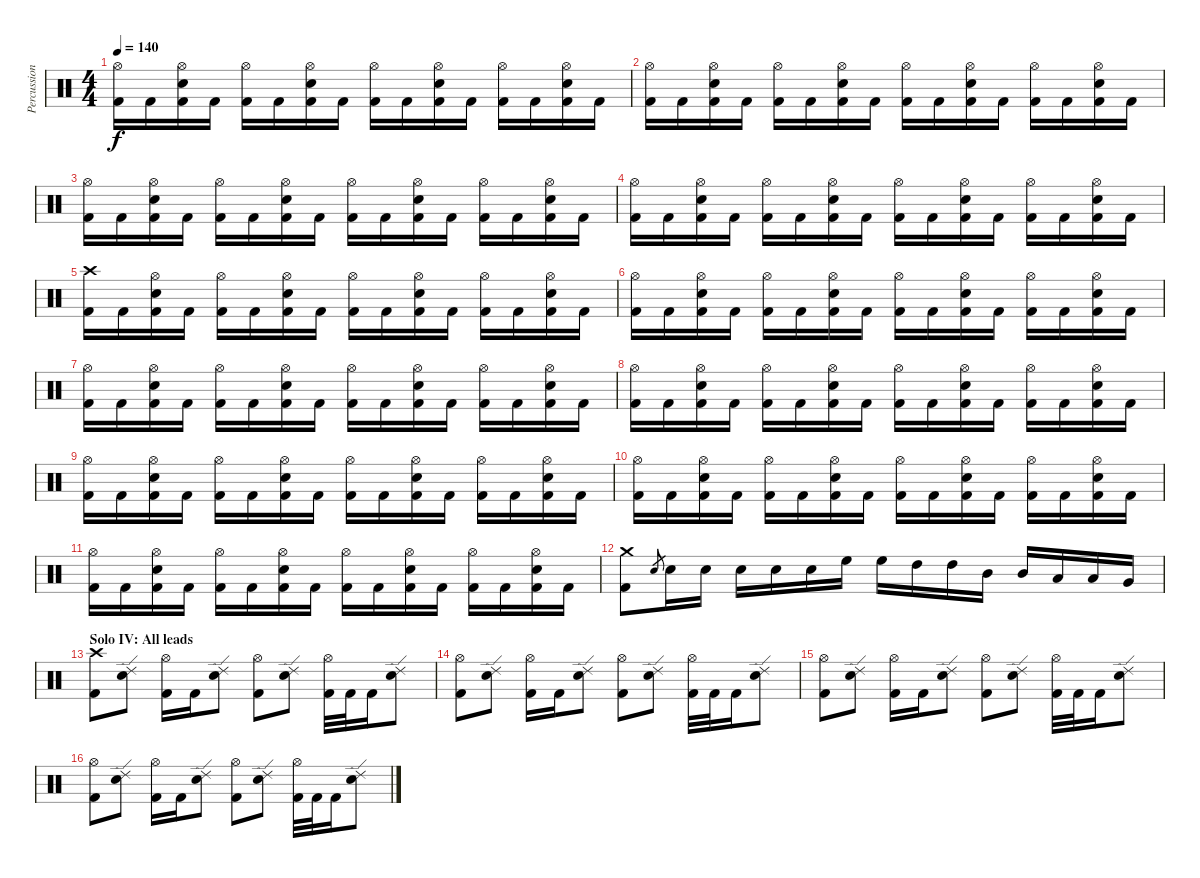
\track ("Percussion" "Percussion") {instrument percussion}
\staff {score}
\articulation defaults
\ts (4 4)
\tempo 140
\clef neutral
\ks c
("Hi-Hat (open)" "Kick (hit) 2").16{dy f} "Kick (hit) 2".16 ("Hi-Hat (open)" "Electric Snare (hit)" "Kick (hit) 2").16 "Kick (hit) 2".16 ("Hi-Hat (open)" "Kick (hit) 2").16 "Kick (hit) 2".16 ("Hi-Hat (open)" "Electric Snare (hit)" "Kick (hit) 2").16 "Kick (hit) 2".16 ("Hi-Hat (open)" "Kick (hit) 2").16 "Kick (hit) 2".16 ("Hi-Hat (open)" "Electric Snare (hit)" "Kick (hit) 2").16 "Kick (hit) 2".16 ("Hi-Hat (open)" "Kick (hit) 2").16 "Kick (hit) 2".16 ("Hi-Hat (open)" "Electric Snare (hit)" "Kick (hit) 2").16 "Kick (hit) 2".16 |
("Hi-Hat (open)" "Kick (hit) 2").16 "Kick (hit) 2".16 ("Hi-Hat (open)" "Electric Snare (hit)" "Kick (hit) 2").16 "Kick (hit) 2".16 ("Hi-Hat (open)" "Kick (hit) 2").16 "Kick (hit) 2".16 ("Hi-Hat (open)" "Electric Snare (hit)" "Kick (hit) 2").16 "Kick (hit) 2".16 ("Hi-Hat (open)" "Kick (hit) 2").16 "Kick (hit) 2".16 ("Hi-Hat (open)" "Electric Snare (hit)" "Kick (hit) 2").16 "Kick (hit) 2".16 ("Hi-Hat (open)" "Kick (hit) 2").16 "Kick (hit) 2".16 ("Hi-Hat (open)" "Electric Snare (hit)" "Kick (hit) 2").16 "Kick (hit) 2".16 |
("Hi-Hat (open)" "Kick (hit) 2").16 "Kick (hit) 2".16 ("Hi-Hat (open)" "Electric Snare (hit)" "Kick (hit) 2").16 "Kick (hit) 2".16 ("Hi-Hat (open)" "Kick (hit) 2").16 "Kick (hit) 2".16 ("Hi-Hat (open)" "Electric Snare (hit)" "Kick (hit) 2").16 "Kick (hit) 2".16 ("Hi-Hat (open)" "Kick (hit) 2").16 "Kick (hit) 2".16 ("Hi-Hat (open)" "Electric Snare (hit)" "Kick (hit) 2").16 "Kick (hit) 2".16 ("Hi-Hat (open)" "Kick (hit) 2").16 "Kick (hit) 2".16 ("Hi-Hat (open)" "Electric Snare (hit)" "Kick (hit) 2").16 "Kick (hit) 2".16 |
("Hi-Hat (open)" "Kick (hit) 2").16 "Kick (hit) 2".16 ("Hi-Hat (open)" "Electric Snare (hit)" "Kick (hit) 2").16 "Kick (hit) 2".16 ("Hi-Hat (open)" "Kick (hit) 2").16 "Kick (hit) 2".16 ("Hi-Hat (open)" "Electric Snare (hit)" "Kick (hit) 2").16 "Kick (hit) 2".16 ("Hi-Hat (open)" "Kick (hit) 2").16 "Kick (hit) 2".16 ("Hi-Hat (open)" "Electric Snare (hit)" "Kick (hit) 2").16 "Kick (hit) 2".16 ("Hi-Hat (open)" "Kick (hit) 2").16 "Kick (hit) 2".16 ("Hi-Hat (open)" "Electric Snare (hit)" "Kick (hit) 2").16 "Kick (hit) 2".16 |
("Crash high (hit)" "Kick (hit) 2").16 "Kick (hit) 2".16 ("Hi-Hat (open)" "Electric Snare (hit)" "Kick (hit) 2").16 "Kick (hit) 2".16 ("Hi-Hat (open)" "Kick (hit) 2").16 "Kick (hit) 2".16 ("Hi-Hat (open)" "Electric Snare (hit)" "Kick (hit) 2").16 "Kick (hit) 2".16 ("Hi-Hat (open)" "Kick (hit) 2").16 "Kick (hit) 2".16 ("Hi-Hat (open)" "Electric Snare (hit)" "Kick (hit) 2").16 "Kick (hit) 2".16 ("Hi-Hat (open)" "Kick (hit) 2").16 "Kick (hit) 2".16 ("Hi-Hat (open)" "Electric Snare (hit)" "Kick (hit) 2").16 "Kick (hit) 2".16 |
("Hi-Hat (open)" "Kick (hit) 2").16 "Kick (hit) 2".16 ("Hi-Hat (open)" "Electric Snare (hit)" "Kick (hit) 2").16 "Kick (hit) 2".16 ("Hi-Hat (open)" "Kick (hit) 2").16 "Kick (hit) 2".16 ("Hi-Hat (open)" "Electric Snare (hit)" "Kick (hit) 2").16 "Kick (hit) 2".16 ("Hi-Hat (open)" "Kick (hit) 2").16 "Kick (hit) 2".16 ("Hi-Hat (open)" "Electric Snare (hit)" "Kick (hit) 2").16 "Kick (hit) 2".16 ("Hi-Hat (open)" "Kick (hit) 2").16 "Kick (hit) 2".16 ("Hi-Hat (open)" "Electric Snare (hit)" "Kick (hit) 2").16 "Kick (hit) 2".16 |
("Hi-Hat (open)" "Kick (hit) 2").16 "Kick (hit) 2".16 ("Hi-Hat (open)" "Electric Snare (hit)" "Kick (hit) 2").16 "Kick (hit) 2".16 ("Hi-Hat (open)" "Kick (hit) 2").16 "Kick (hit) 2".16 ("Hi-Hat (open)" "Electric Snare (hit)" "Kick (hit) 2").16 "Kick (hit) 2".16 ("Hi-Hat (open)" "Kick (hit) 2").16 "Kick (hit) 2".16 ("Hi-Hat (open)" "Electric Snare (hit)" "Kick (hit) 2").16 "Kick (hit) 2".16 ("Hi-Hat (open)" "Kick (hit) 2").16 "Kick (hit) 2".16 ("Hi-Hat (open)" "Electric Snare (hit)" "Kick (hit) 2").16 "Kick (hit) 2".16 |
("Hi-Hat (open)" "Kick (hit) 2").16 "Kick (hit) 2".16 ("Hi-Hat (open)" "Electric Snare (hit)" "Kick (hit) 2").16 "Kick (hit) 2".16 ("Hi-Hat (open)" "Kick (hit) 2").16 "Kick (hit) 2".16 ("Hi-Hat (open)" "Electric Snare (hit)" "Kick (hit) 2").16 "Kick (hit) 2".16 ("Hi-Hat (open)" "Kick (hit) 2").16 "Kick (hit) 2".16 ("Hi-Hat (open)" "Electric Snare (hit)" "Kick (hit) 2").16 "Kick (hit) 2".16 ("Hi-Hat (open)" "Kick (hit) 2").16 "Kick (hit) 2".16 ("Hi-Hat (open)" "Electric Snare (hit)" "Kick (hit) 2").16 "Kick (hit) 2".16 |
("Hi-Hat (open)" "Kick (hit) 2").16 "Kick (hit) 2".16 ("Hi-Hat (open)" "Electric Snare (hit)" "Kick (hit) 2").16 "Kick (hit) 2".16 ("Hi-Hat (open)" "Kick (hit) 2").16 "Kick (hit) 2".16 ("Hi-Hat (open)" "Electric Snare (hit)" "Kick (hit) 2").16 "Kick (hit) 2".16 ("Hi-Hat (open)" "Kick (hit) 2").16 "Kick (hit) 2".16 ("Hi-Hat (open)" "Electric Snare (hit)" "Kick (hit) 2").16 "Kick (hit) 2".16 ("Hi-Hat (open)" "Kick (hit) 2").16 "Kick (hit) 2".16 ("Hi-Hat (open)" "Electric Snare (hit)" "Kick (hit) 2").16 "Kick (hit) 2".16 |
("Hi-Hat (open)" "Kick (hit) 2").16 "Kick (hit) 2".16 ("Hi-Hat (open)" "Electric Snare (hit)" "Kick (hit) 2").16 "Kick (hit) 2".16 ("Hi-Hat (open)" "Kick (hit) 2").16 "Kick (hit) 2".16 ("Hi-Hat (open)" "Electric Snare (hit)" "Kick (hit) 2").16 "Kick (hit) 2".16 ("Hi-Hat (open)" "Kick (hit) 2").16 "Kick (hit) 2".16 ("Hi-Hat (open)" "Electric Snare (hit)" "Kick (hit) 2").16 "Kick (hit) 2".16 ("Hi-Hat (open)" "Kick (hit) 2").16 "Kick (hit) 2".16 ("Hi-Hat (open)" "Electric Snare (hit)" "Kick (hit) 2").16 "Kick (hit) 2".16 |
("Hi-Hat (open)" "Kick (hit) 2").16 "Kick (hit) 2".16 ("Hi-Hat (open)" "Electric Snare (hit)" "Kick (hit) 2").16 "Kick (hit) 2".16 ("Hi-Hat (open)" "Kick (hit) 2").16 "Kick (hit) 2".16 ("Hi-Hat (open)" "Electric Snare (hit)" "Kick (hit) 2").16 "Kick (hit) 2".16 ("Hi-Hat (open)" "Kick (hit) 2").16 "Kick (hit) 2".16 ("Hi-Hat (open)" "Electric Snare (hit)" "Kick (hit) 2").16 "Kick (hit) 2".16 ("Hi-Hat (open)" "Kick (hit) 2").16 "Kick (hit) 2".16 ("Hi-Hat (open)" "Electric Snare (hit)" "Kick (hit) 2").16 "Kick (hit) 2".16 |
("Crash medium (hit)" "Kick (hit) 2").8 "Electric Snare (hit)".8{gr} "Electric Snare (hit)".16 "Electric Snare (hit)".16 "Electric Snare (hit)".16 "Electric Snare (hit)".16 "Electric Snare (hit)".16 "High Floor Tom (hit)".16 "High Floor Tom (hit)".16 "High Tom (hit)".16 "High Tom (hit)".16 "Mid Tom (hit)".16 "Mid Tom (hit)".16 "Low Tom (hit)".16 "Low Tom (hit)".16 "Very Low Tom (hit)".16 |
\section ("" "Solo IV: All leads")
("Crash high (hit)" "Kick (hit) 2").8 ("Ride (edge) 2" "Electric Snare (hit)").8 ("Hi-Hat (open)" "Kick (hit) 2").16 "Kick (hit) 2".16 ("Ride (edge) 2" "Electric Snare (hit)").8 ("Hi-Hat (open)" "Kick (hit) 2").8 ("Ride (edge) 2" "Electric Snare (hit)").8 ("Hi-Hat (open)" "Kick (hit) 2").32 "Kick (hit) 2".32 "Kick (hit) 2".16 ("Ride (edge) 2" "Electric Snare (hit)").8 |
("Hi-Hat (open)" "Kick (hit) 2").8 ("Ride (edge) 2" "Electric Snare (hit)").8 ("Hi-Hat (open)" "Kick (hit) 2").16 "Kick (hit) 2".16 ("Ride (edge) 2" "Electric Snare (hit)").8 ("Hi-Hat (open)" "Kick (hit) 2").8 ("Ride (edge) 2" "Electric Snare (hit)").8 ("Hi-Hat (open)" "Kick (hit) 2").32 "Kick (hit) 2".32 "Kick (hit) 2".16 ("Ride (edge) 2" "Electric Snare (hit)").8 |
("Hi-Hat (open)" "Kick (hit) 2").8 ("Ride (edge) 2" "Electric Snare (hit)").8 ("Hi-Hat (open)" "Kick (hit) 2").16 "Kick (hit) 2".16 ("Ride (edge) 2" "Electric Snare (hit)").8 ("Hi-Hat (open)" "Kick (hit) 2").8 ("Ride (edge) 2" "Electric Snare (hit)").8 ("Hi-Hat (open)" "Kick (hit) 2").32 "Kick (hit) 2".32 "Kick (hit) 2".16 ("Ride (edge) 2" "Electric Snare (hit)").8 |
("Hi-Hat (open)" "Kick (hit) 2").8 ("Ride (edge) 2" "Electric Snare (hit)").8 ("Hi-Hat (open)" "Kick (hit) 2").16 "Kick (hit) 2".16 ("Ride (edge) 2" "Electric Snare (hit)").8 ("Hi-Hat (open)" "Kick (hit) 2").8 ("Ride (edge) 2" "Electric Snare (hit)").8 ("Hi-Hat (open)" "Kick (hit) 2").32 "Kick (hit) 2".32 "Kick (hit) 2".16 ("Ride (edge) 2" "Electric Snare (hit)").8
